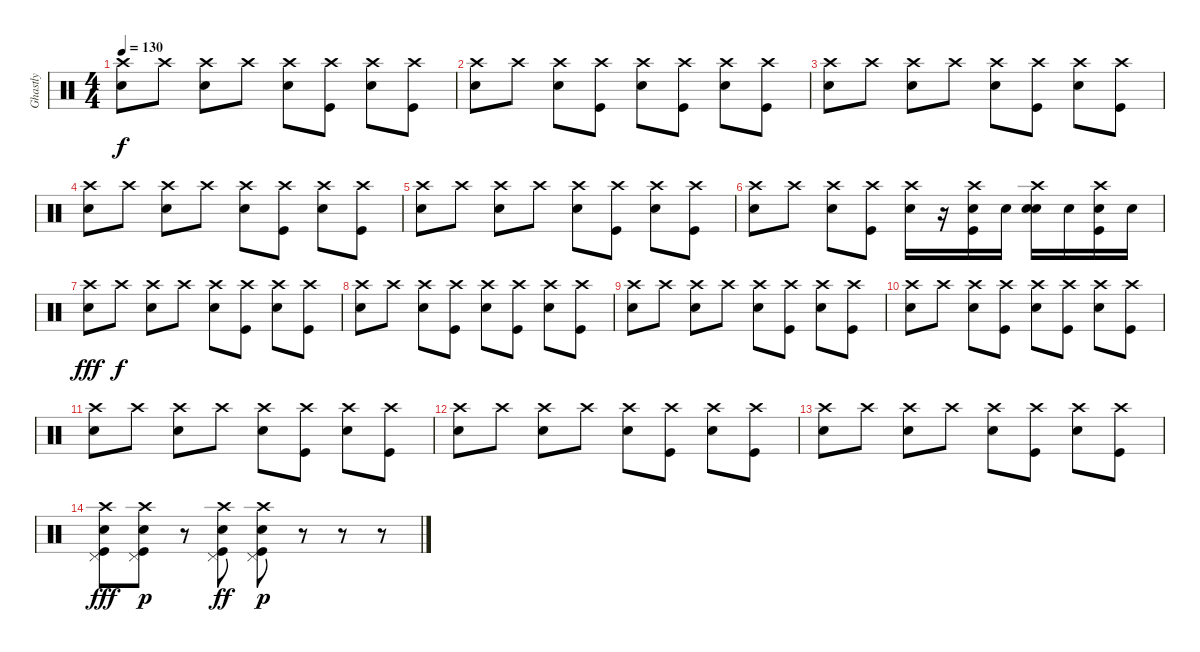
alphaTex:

\track ("Ghastly" "Ghastly") {instrument percussion}
\staff {score}
\articulation defaults
\ts (4 4)
\tempo 130
\clef neutral
\ks c
("Crash high (hit)" "Electric Snare (hit)").8{dy f} "Crash high (hit)".8 ("Crash high (hit)" "Electric Snare (hit)").8 "Crash high (hit)".8 ("Crash high (hit)" "Electric Snare (hit)").8 ("Crash high (hit)" "Kick (hit)").8 ("Crash high (hit)" "Electric Snare (hit)").8 ("Crash high (hit)" "Kick (hit)").8 |
("Crash high (hit)" "Electric Snare (hit)").8 "Crash high (hit)".8 ("Crash high (hit)" "Electric Snare (hit)").8 ("Crash high (hit)" "Kick (hit)").8 ("Crash high (hit)" "Electric Snare (hit)").8 ("Crash high (hit)" "Kick (hit)").8 ("Crash high (hit)" "Electric Snare (hit)").8 ("Crash high (hit)" "Kick (hit)").8 |
("Crash high (hit)" "Electric Snare (hit)").8 "Crash high (hit)".8 ("Crash high (hit)" "Electric Snare (hit)").8 "Crash high (hit)".8 ("Crash high (hit)" "Electric Snare (hit)").8 ("Crash high (hit)" "Kick (hit)").8 ("Crash high (hit)" "Electric Snare (hit)").8 ("Crash high (hit)" "Kick (hit)").8 |
("Crash high (hit)" "Electric Snare (hit)").8 "Crash high (hit)".8 ("Crash high (hit)" "Electric Snare (hit)").8 "Crash high (hit)".8 ("Crash high (hit)" "Electric Snare (hit)").8 ("Crash high (hit)" "Kick (hit)").8 ("Crash high (hit)" "Electric Snare (hit)").8 ("Crash high (hit)" "Kick (hit)").8 |
("Crash high (hit)" "Electric Snare (hit)").8 "Crash high (hit)".8 ("Crash high (hit)" "Electric Snare (hit)").8 "Crash high (hit)".8 ("Crash high (hit)" "Electric Snare (hit)").8 ("Crash high (hit)" "Kick (hit)").8 ("Crash high (hit)" "Electric Snare (hit)").8 ("Crash high (hit)" "Kick (hit)").8 |
("Crash high (hit)" "Electric Snare (hit)").8 "Crash high (hit)".8 ("Crash high (hit)" "Electric Snare (hit)").8 ("Crash high (hit)" "Kick (hit)").8 ("Crash high (hit)" "Electric Snare (hit)").16 r.16 ("Crash high (hit)" "Kick (hit)" "Electric Snare (hit)").16 "Electric Snare (hit)".16 ("Crash high (hit)" "Electric Snare (hit)" "Electric Snare (hit)").16 "Electric Snare (hit)".16 ("Crash high (hit)" "Kick (hit)" "Electric Snare (hit)").16 "Electric Snare (hit)".16 |
("Crash high (hit)" "Electric Snare (hit)").8{dy fff} "Crash high (hit)".8{dy f} ("Crash high (hit)" "Electric Snare (hit)").8 "Crash high (hit)".8 ("Crash high (hit)" "Electric Snare (hit)").8 ("Crash high (hit)" "Kick (hit)").8 ("Crash high (hit)" "Electric Snare (hit)").8 ("Crash high (hit)" "Kick (hit)").8 |
("Crash high (hit)" "Electric Snare (hit)").8 "Crash high (hit)".8 ("Crash high (hit)" "Electric Snare (hit)").8 ("Crash high (hit)" "Kick (hit)").8 ("Crash high (hit)" "Electric Snare (hit)").8 ("Crash high (hit)" "Kick (hit)").8 ("Crash high (hit)" "Electric Snare (hit)").8 ("Crash high (hit)" "Kick (hit)").8 |
("Crash high (hit)" "Electric Snare (hit)").8 "Crash high (hit)".8 ("Crash high (hit)" "Electric Snare (hit)").8 "Crash high (hit)".8 ("Crash high (hit)" "Electric Snare (hit)").8 ("Crash high (hit)" "Kick (hit)").8 ("Crash high (hit)" "Electric Snare (hit)").8 ("Crash high (hit)" "Kick (hit)").8 |
("Crash high (hit)" "Electric Snare (hit)").8 "Crash high (hit)".8 ("Crash high (hit)" "Electric Snare (hit)").8 ("Crash high (hit)" "Kick (hit)").8 ("Crash high (hit)" "Electric Snare (hit)").8 ("Crash high (hit)" "Kick (hit)").8 ("Crash high (hit)" "Electric Snare (hit)").8 ("Crash high (hit)" "Kick (hit)").8 |
("Crash high (hit)" "Electric Snare (hit)").8 "Crash high (hit)".8 ("Crash high (hit)" "Electric Snare (hit)").8 "Crash high (hit)".8 ("Crash high (hit)" "Electric Snare (hit)").8 ("Crash high (hit)" "Kick (hit)").8 ("Crash high (hit)" "Electric Snare (hit)").8 ("Crash high (hit)" "Kick (hit)").8 |
("Crash high (hit)" "Electric Snare (hit)").8 "Crash high (hit)".8 ("Crash high (hit)" "Electric Snare (hit)").8 "Crash high (hit)".8 ("Crash high (hit)" "Electric Snare (hit)").8 ("Crash high (hit)" "Kick (hit)").8 ("Crash high (hit)" "Electric Snare (hit)").8 ("Crash high (hit)" "Kick (hit)").8 |
("Crash high (hit)" "Electric Snare (hit)").8 "Crash high (hit)".8 ("Crash high (hit)" "Electric Snare (hit)").8 "Crash high (hit)".8 ("Crash high (hit)" "Electric Snare (hit)").8 ("Crash high (hit)" "Kick (hit)").8 ("Crash high (hit)" "Electric Snare (hit)").8 ("Crash high (hit)" "Kick (hit)").8 |
("Crash high (hit)" "Pedal Hi-Hat (hit)" "Kick (hit)" "Electric Snare (hit)").8{dy fff} ("Crash high (hit)" "Pedal Hi-Hat (hit)" "Kick (hit)" "Electric Snare (hit)").8{dy p} r.8 ("Crash high (hit)" "Pedal Hi-Hat (hit)" "Kick (hit)" "Electric Snare (hit)").8{dy ff} ("Crash high (hit)" "Pedal Hi-Hat (hit)" "Kick (hit)" "Electric Snare (hit)").8{dy p} r.8 r.8 r.8
